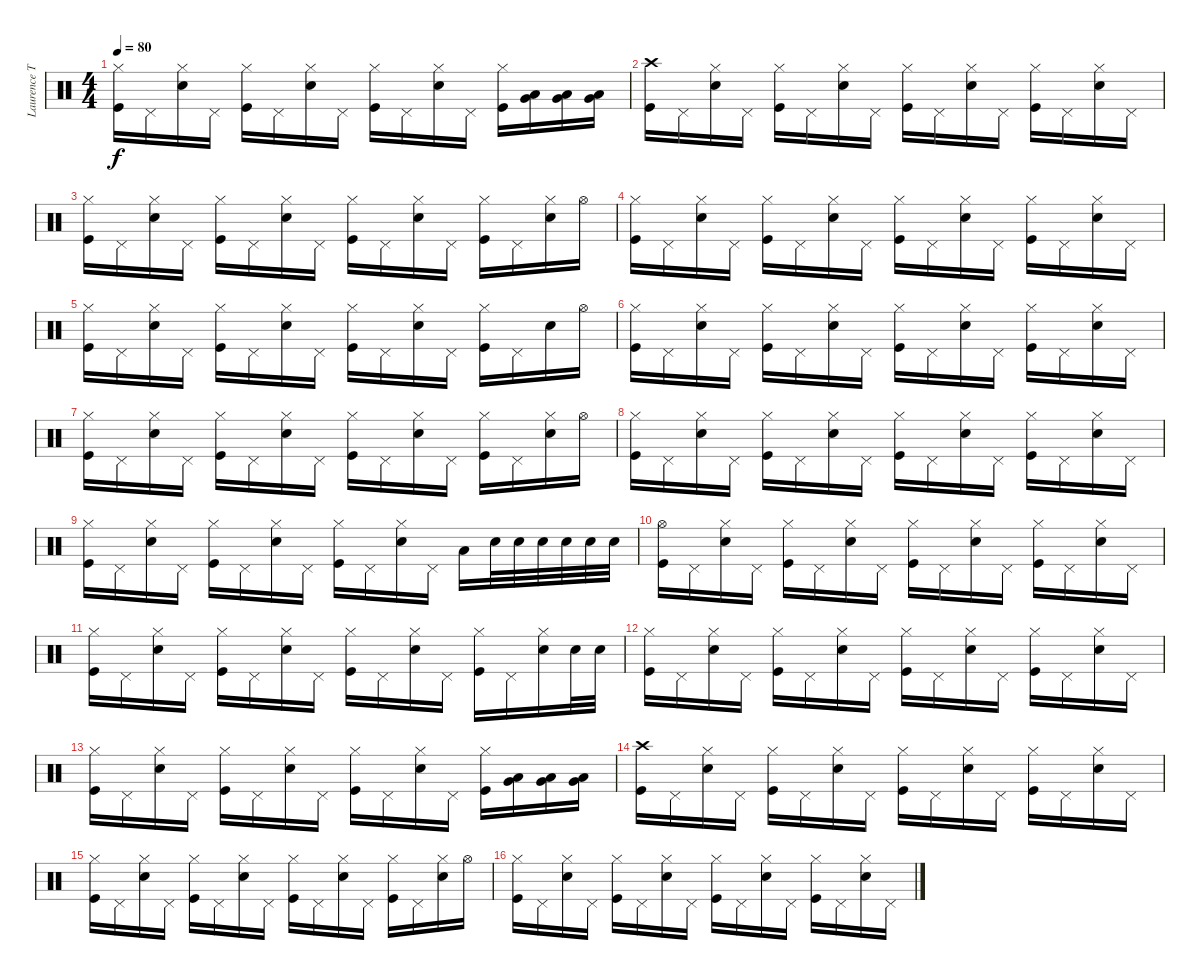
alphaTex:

\track ("Laurence Tolhurst (drums)" "Laurence T") {instrument percussion}
\staff {score}
\articulation defaults
\ts (4 4)
\tempo 80
\clef neutral
\ks c
("Kick (hit)" "Hi-Hat (closed)").16{dy f} "Pedal Hi-Hat (hit)".16 ("Snare (hit) 2" "Hi-Hat (closed)").16 "Pedal Hi-Hat (hit)".16 ("Kick (hit)" "Hi-Hat (closed)").16 "Pedal Hi-Hat (hit)".16 ("Snare (hit) 2" "Hi-Hat (closed)").16 "Pedal Hi-Hat (hit)".16 ("Kick (hit)" "Hi-Hat (closed)").16 "Pedal Hi-Hat (hit)".16 ("Snare (hit) 2" "Hi-Hat (closed)").16 "Pedal Hi-Hat (hit)".16 ("Kick (hit)" "Hi-Hat (closed)").16 ("Very Low Tom (hit)" "Low Floor Tom (hit)").16 ("Very Low Tom (hit)" "Low Floor Tom (hit)").16 ("Very Low Tom (hit)" "Low Floor Tom (hit)").16 |
("Kick (hit)" "Crash high (hit)").16 "Pedal Hi-Hat (hit)".16 ("Snare (hit) 2" "Hi-Hat (closed)").16 "Pedal Hi-Hat (hit)".16 ("Kick (hit)" "Hi-Hat (closed)").16 "Pedal Hi-Hat (hit)".16 ("Snare (hit) 2" "Hi-Hat (closed)").16 "Pedal Hi-Hat (hit)".16 ("Kick (hit)" "Hi-Hat (closed)").16 "Pedal Hi-Hat (hit)".16 ("Snare (hit) 2" "Hi-Hat (closed)").16 "Pedal Hi-Hat (hit)".16 ("Kick (hit)" "Hi-Hat (closed)").16 "Pedal Hi-Hat (hit)".16 ("Snare (hit) 2" "Hi-Hat (closed)").16 "Pedal Hi-Hat (hit)".16 |
("Kick (hit)" "Hi-Hat (closed)").16 "Pedal Hi-Hat (hit)".16 ("Snare (hit) 2" "Hi-Hat (closed)").16 "Pedal Hi-Hat (hit)".16 ("Kick (hit)" "Hi-Hat (closed)").16 "Pedal Hi-Hat (hit)".16 ("Snare (hit) 2" "Hi-Hat (closed)").16 "Pedal Hi-Hat (hit)".16 ("Kick (hit)" "Hi-Hat (closed)").16 "Pedal Hi-Hat (hit)".16 ("Snare (hit) 2" "Hi-Hat (closed)").16 "Pedal Hi-Hat (hit)".16 ("Kick (hit)" "Hi-Hat (closed)").16 "Pedal Hi-Hat (hit)".16 ("Snare (hit) 2" "Hi-Hat (closed)").16 "Hi-Hat (open)".16 |
("Kick (hit)" "Hi-Hat (closed)").16 "Pedal Hi-Hat (hit)".16 ("Snare (hit) 2" "Hi-Hat (closed)").16 "Pedal Hi-Hat (hit)".16 ("Kick (hit)" "Hi-Hat (closed)").16 "Pedal Hi-Hat (hit)".16 ("Snare (hit) 2" "Hi-Hat (closed)").16 "Pedal Hi-Hat (hit)".16 ("Kick (hit)" "Hi-Hat (closed)").16 "Pedal Hi-Hat (hit)".16 ("Snare (hit) 2" "Hi-Hat (closed)").16 "Pedal Hi-Hat (hit)".16 ("Kick (hit)" "Hi-Hat (closed)").16 "Pedal Hi-Hat (hit)".16 ("Snare (hit) 2" "Hi-Hat (closed)").16 "Pedal Hi-Hat (hit)".16 |
("Kick (hit)" "Hi-Hat (closed)").16 "Pedal Hi-Hat (hit)".16 ("Snare (hit) 2" "Hi-Hat (closed)").16 "Pedal Hi-Hat (hit)".16 ("Kick (hit)" "Hi-Hat (closed)").16 "Pedal Hi-Hat (hit)".16 ("Snare (hit) 2" "Hi-Hat (closed)").16 "Pedal Hi-Hat (hit)".16 ("Kick (hit)" "Hi-Hat (closed)").16 "Pedal Hi-Hat (hit)".16 ("Snare (hit) 2" "Hi-Hat (closed)").16 "Pedal Hi-Hat (hit)".16 ("Kick (hit)" "Hi-Hat (closed)").16 "Pedal Hi-Hat (hit)".16 "Snare (hit) 2".16 "Hi-Hat (open)".16 |
("Kick (hit)" "Hi-Hat (closed)").16 "Pedal Hi-Hat (hit)".16 ("Snare (hit) 2" "Hi-Hat (closed)").16 "Pedal Hi-Hat (hit)".16 ("Kick (hit)" "Hi-Hat (closed)").16 "Pedal Hi-Hat (hit)".16 ("Snare (hit) 2" "Hi-Hat (closed)").16 "Pedal Hi-Hat (hit)".16 ("Kick (hit)" "Hi-Hat (closed)").16 "Pedal Hi-Hat (hit)".16 ("Snare (hit) 2" "Hi-Hat (closed)").16 "Pedal Hi-Hat (hit)".16 ("Kick (hit)" "Hi-Hat (closed)").16 "Pedal Hi-Hat (hit)".16 ("Snare (hit) 2" "Hi-Hat (closed)").16 "Pedal Hi-Hat (hit)".16 |
("Kick (hit)" "Hi-Hat (closed)").16 "Pedal Hi-Hat (hit)".16 ("Snare (hit) 2" "Hi-Hat (closed)").16 "Pedal Hi-Hat (hit)".16 ("Kick (hit)" "Hi-Hat (closed)").16 "Pedal Hi-Hat (hit)".16 ("Snare (hit) 2" "Hi-Hat (closed)").16 "Pedal Hi-Hat (hit)".16 ("Kick (hit)" "Hi-Hat (closed)").16 "Pedal Hi-Hat (hit)".16 ("Snare (hit) 2" "Hi-Hat (closed)").16 "Pedal Hi-Hat (hit)".16 ("Kick (hit)" "Hi-Hat (closed)").16 "Pedal Hi-Hat (hit)".16 ("Snare (hit) 2" "Hi-Hat (closed)").16 "Hi-Hat (open)".16 |
("Kick (hit)" "Hi-Hat (closed)").16 "Pedal Hi-Hat (hit)".16 ("Snare (hit) 2" "Hi-Hat (closed)").16 "Pedal Hi-Hat (hit)".16 ("Kick (hit)" "Hi-Hat (closed)").16 "Pedal Hi-Hat (hit)".16 ("Snare (hit) 2" "Hi-Hat (closed)").16 "Pedal Hi-Hat (hit)".16 ("Kick (hit)" "Hi-Hat (closed)").16 "Pedal Hi-Hat (hit)".16 ("Snare (hit) 2" "Hi-Hat (closed)").16 "Pedal Hi-Hat (hit)".16 ("Kick (hit)" "Hi-Hat (closed)").16 "Pedal Hi-Hat (hit)".16 ("Snare (hit) 2" "Hi-Hat (closed)").16 "Pedal Hi-Hat (hit)".16 |
("Kick (hit)" "Hi-Hat (closed)").16 "Pedal Hi-Hat (hit)".16 ("Snare (hit) 2" "Hi-Hat (closed)").16 "Pedal Hi-Hat (hit)".16 ("Kick (hit)" "Hi-Hat (closed)").16 "Pedal Hi-Hat (hit)".16 ("Snare (hit) 2" "Hi-Hat (closed)").16 "Pedal Hi-Hat (hit)".16 ("Kick (hit)" "Hi-Hat (closed)").16 "Pedal Hi-Hat (hit)".16 ("Snare (hit) 2" "Hi-Hat (closed)").16 "Pedal Hi-Hat (hit)".16 "Low Tom (hit)".16 "Snare (hit) 2".32 "Snare (hit) 2".32 "Snare (hit) 2".32 "Snare (hit) 2".32 "Snare (hit) 2".32 "Snare (hit) 2".32 |
("Kick (hit)" "Hi-Hat (open)").16 "Pedal Hi-Hat (hit)".16 ("Snare (hit) 2" "Hi-Hat (closed)").16 "Pedal Hi-Hat (hit)".16 ("Kick (hit)" "Hi-Hat (closed)").16 "Pedal Hi-Hat (hit)".16 ("Snare (hit) 2" "Hi-Hat (closed)").16 "Pedal Hi-Hat (hit)".16 ("Kick (hit)" "Hi-Hat (closed)").16 "Pedal Hi-Hat (hit)".16 ("Snare (hit) 2" "Hi-Hat (closed)").16 "Pedal Hi-Hat (hit)".16 ("Kick (hit)" "Hi-Hat (closed)").16 "Pedal Hi-Hat (hit)".16 ("Snare (hit) 2" "Hi-Hat (closed)").16 "Pedal Hi-Hat (hit)".16 |
("Kick (hit)" "Hi-Hat (closed)").16 "Pedal Hi-Hat (hit)".16 ("Snare (hit) 2" "Hi-Hat (closed)").16 "Pedal Hi-Hat (hit)".16 ("Kick (hit)" "Hi-Hat (closed)").16 "Pedal Hi-Hat (hit)".16 ("Snare (hit) 2" "Hi-Hat (closed)").16 "Pedal Hi-Hat (hit)".16 ("Kick (hit)" "Hi-Hat (closed)").16 "Pedal Hi-Hat (hit)".16 ("Snare (hit) 2" "Hi-Hat (closed)").16 "Pedal Hi-Hat (hit)".16 ("Kick (hit)" "Hi-Hat (closed)").16 "Pedal Hi-Hat (hit)".16 ("Snare (hit) 2" "Hi-Hat (closed)").16 "Snare (hit) 2".32 "Snare (hit) 2".32 |
("Kick (hit)" "Hi-Hat (closed)").16 "Pedal Hi-Hat (hit)".16 ("Snare (hit) 2" "Hi-Hat (closed)").16 "Pedal Hi-Hat (hit)".16 ("Kick (hit)" "Hi-Hat (closed)").16 "Pedal Hi-Hat (hit)".16 ("Snare (hit) 2" "Hi-Hat (closed)").16 "Pedal Hi-Hat (hit)".16 ("Kick (hit)" "Hi-Hat (closed)").16 "Pedal Hi-Hat (hit)".16 ("Snare (hit) 2" "Hi-Hat (closed)").16 "Pedal Hi-Hat (hit)".16 ("Kick (hit)" "Hi-Hat (closed)").16 "Pedal Hi-Hat (hit)".16 ("Snare (hit) 2" "Hi-Hat (closed)").16 "Pedal Hi-Hat (hit)".16 |
("Kick (hit)" "Hi-Hat (closed)").16 "Pedal Hi-Hat (hit)".16 ("Snare (hit) 2" "Hi-Hat (closed)").16 "Pedal Hi-Hat (hit)".16 ("Kick (hit)" "Hi-Hat (closed)").16 "Pedal Hi-Hat (hit)".16 ("Snare (hit) 2" "Hi-Hat (closed)").16 "Pedal Hi-Hat (hit)".16 ("Kick (hit)" "Hi-Hat (closed)").16 "Pedal Hi-Hat (hit)".16 ("Snare (hit) 2" "Hi-Hat (closed)").16 "Pedal Hi-Hat (hit)".16 ("Kick (hit)" "Hi-Hat (closed)").16 ("Very Low Tom (hit)" "Low Floor Tom (hit)").16 ("Very Low Tom (hit)" "Low Floor Tom (hit)").16 ("Very Low Tom (hit)" "Low Floor Tom (hit)").16 |
("Kick (hit)" "Crash high (hit)").16 "Pedal Hi-Hat (hit)".16 ("Snare (hit) 2" "Hi-Hat (closed)").16 "Pedal Hi-Hat (hit)".16 ("Kick (hit)" "Hi-Hat (closed)").16 "Pedal Hi-Hat (hit)".16 ("Snare (hit) 2" "Hi-Hat (closed)").16 "Pedal Hi-Hat (hit)".16 ("Kick (hit)" "Hi-Hat (closed)").16 "Pedal Hi-Hat (hit)".16 ("Snare (hit) 2" "Hi-Hat (closed)").16 "Pedal Hi-Hat (hit)".16 ("Kick (hit)" "Hi-Hat (closed)").16 "Pedal Hi-Hat (hit)".16 ("Snare (hit) 2" "Hi-Hat (closed)").16 "Pedal Hi-Hat (hit)".16 |
("Kick (hit)" "Hi-Hat (closed)").16 "Pedal Hi-Hat (hit)".16 ("Snare (hit) 2" "Hi-Hat (closed)").16 "Pedal Hi-Hat (hit)".16 ("Kick (hit)" "Hi-Hat (closed)").16 "Pedal Hi-Hat (hit)".16 ("Snare (hit) 2" "Hi-Hat (closed)").16 "Pedal Hi-Hat (hit)".16 ("Kick (hit)" "Hi-Hat (closed)").16 "Pedal Hi-Hat (hit)".16 ("Snare (hit) 2" "Hi-Hat (closed)").16 "Pedal Hi-Hat (hit)".16 ("Kick (hit)" "Hi-Hat (closed)").16 "Pedal Hi-Hat (hit)".16 ("Snare (hit) 2" "Hi-Hat (closed)").16 "Hi-Hat (open)".16 |
("Kick (hit)" "Hi-Hat (closed)").16 "Pedal Hi-Hat (hit)".16 ("Snare (hit) 2" "Hi-Hat (closed)").16 "Pedal Hi-Hat (hit)".16 ("Kick (hit)" "Hi-Hat (closed)").16 "Pedal Hi-Hat (hit)".16 ("Snare (hit) 2" "Hi-Hat (closed)").16 "Pedal Hi-Hat (hit)".16 ("Kick (hit)" "Hi-Hat (closed)").16 "Pedal Hi-Hat (hit)".16 ("Snare (hit) 2" "Hi-Hat (closed)").16 "Pedal Hi-Hat (hit)".16 ("Kick (hit)" "Hi-Hat (closed)").16 "Pedal Hi-Hat (hit)".16 ("Snare (hit) 2" "Hi-Hat (closed)").16 "Pedal Hi-Hat (hit)".16
